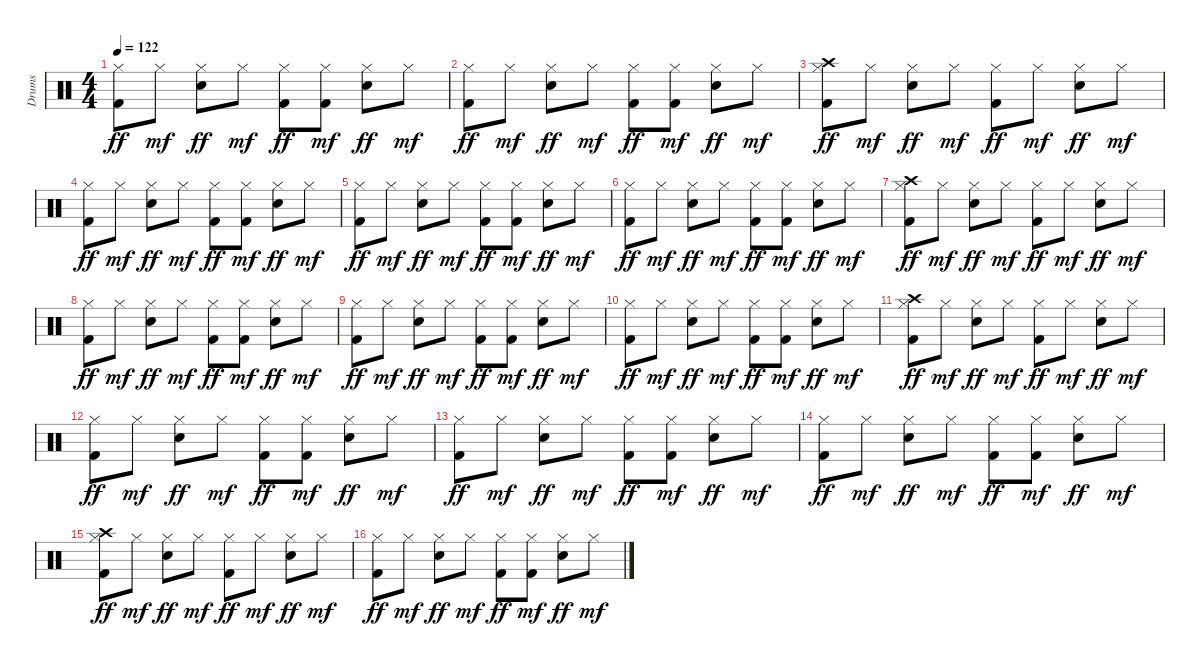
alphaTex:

\track ("Drums" "Drums") {instrument percussion}
\staff {score}
\articulation defaults
\ts (4 4)
\tempo 122
\clef neutral
\ks c
("Kick (hit) 2" "Hi-Hat (closed)").8{dy ff} "Hi-Hat (closed)".8{dy mf} ("Snare (hit) 2" "Hi-Hat (closed)").8{dy ff} "Hi-Hat (closed)".8{dy mf} ("Kick (hit) 2" "Hi-Hat (closed)").8{dy ff} ("Kick (hit) 2" "Hi-Hat (closed)").8{dy mf} ("Snare (hit) 2" "Hi-Hat (closed)").8{dy ff} "Hi-Hat (closed)".8{dy mf} |
("Kick (hit) 2" "Hi-Hat (closed)").8{dy ff} "Hi-Hat (closed)".8{dy mf} ("Snare (hit) 2" "Hi-Hat (closed)").8{dy ff} "Hi-Hat (closed)".8{dy mf} ("Kick (hit) 2" "Hi-Hat (closed)").8{dy ff} ("Kick (hit) 2" "Hi-Hat (closed)").8{dy mf} ("Snare (hit) 2" "Hi-Hat (closed)").8{dy ff} "Hi-Hat (closed)".8{dy mf} |
("Kick (hit) 2" "Hi-Hat (closed)" "Crash high (hit)").8{dy ff} "Hi-Hat (closed)".8{dy mf} ("Snare (hit) 2" "Hi-Hat (closed)").8{dy ff} "Hi-Hat (closed)".8{dy mf} ("Kick (hit) 2" "Hi-Hat (closed)").8{dy ff} "Hi-Hat (closed)".8{dy mf} ("Snare (hit) 2" "Hi-Hat (closed)").8{dy ff} "Hi-Hat (closed)".8{dy mf} |
("Kick (hit) 2" "Hi-Hat (closed)").8{dy ff} "Hi-Hat (closed)".8{dy mf} ("Snare (hit) 2" "Hi-Hat (closed)").8{dy ff} "Hi-Hat (closed)".8{dy mf} ("Kick (hit) 2" "Hi-Hat (closed)").8{dy ff} ("Kick (hit) 2" "Hi-Hat (closed)").8{dy mf} ("Snare (hit) 2" "Hi-Hat (closed)").8{dy ff} "Hi-Hat (closed)".8{dy mf} |
("Kick (hit) 2" "Hi-Hat (closed)").8{dy ff} "Hi-Hat (closed)".8{dy mf} ("Snare (hit) 2" "Hi-Hat (closed)").8{dy ff} "Hi-Hat (closed)".8{dy mf} ("Kick (hit) 2" "Hi-Hat (closed)").8{dy ff} ("Kick (hit) 2" "Hi-Hat (closed)").8{dy mf} ("Snare (hit) 2" "Hi-Hat (closed)").8{dy ff} "Hi-Hat (closed)".8{dy mf} |
("Kick (hit) 2" "Hi-Hat (closed)").8{dy ff} "Hi-Hat (closed)".8{dy mf} ("Snare (hit) 2" "Hi-Hat (closed)").8{dy ff} "Hi-Hat (closed)".8{dy mf} ("Kick (hit) 2" "Hi-Hat (closed)").8{dy ff} ("Kick (hit) 2" "Hi-Hat (closed)").8{dy mf} ("Snare (hit) 2" "Hi-Hat (closed)").8{dy ff} "Hi-Hat (closed)".8{dy mf} |
("Kick (hit) 2" "Hi-Hat (closed)" "Crash high (hit)").8{dy ff} "Hi-Hat (closed)".8{dy mf} ("Snare (hit) 2" "Hi-Hat (closed)").8{dy ff} "Hi-Hat (closed)".8{dy mf} ("Kick (hit) 2" "Hi-Hat (closed)").8{dy ff} "Hi-Hat (closed)".8{dy mf} ("Snare (hit) 2" "Hi-Hat (closed)").8{dy ff} "Hi-Hat (closed)".8{dy mf} |
("Kick (hit) 2" "Hi-Hat (closed)").8{dy ff} "Hi-Hat (closed)".8{dy mf} ("Snare (hit) 2" "Hi-Hat (closed)").8{dy ff} "Hi-Hat (closed)".8{dy mf} ("Kick (hit) 2" "Hi-Hat (closed)").8{dy ff} ("Kick (hit) 2" "Hi-Hat (closed)").8{dy mf} ("Snare (hit) 2" "Hi-Hat (closed)").8{dy ff} "Hi-Hat (closed)".8{dy mf} |
("Kick (hit) 2" "Hi-Hat (closed)").8{dy ff} "Hi-Hat (closed)".8{dy mf} ("Snare (hit) 2" "Hi-Hat (closed)").8{dy ff} "Hi-Hat (closed)".8{dy mf} ("Kick (hit) 2" "Hi-Hat (closed)").8{dy ff} ("Kick (hit) 2" "Hi-Hat (closed)").8{dy mf} ("Snare (hit) 2" "Hi-Hat (closed)").8{dy ff} "Hi-Hat (closed)".8{dy mf} |
("Kick (hit) 2" "Hi-Hat (closed)").8{dy ff} "Hi-Hat (closed)".8{dy mf} ("Snare (hit) 2" "Hi-Hat (closed)").8{dy ff} "Hi-Hat (closed)".8{dy mf} ("Kick (hit) 2" "Hi-Hat (closed)").8{dy ff} ("Kick (hit) 2" "Hi-Hat (closed)").8{dy mf} ("Snare (hit) 2" "Hi-Hat (closed)").8{dy ff} "Hi-Hat (closed)".8{dy mf} |
("Kick (hit) 2" "Hi-Hat (closed)" "Crash high (hit)").8{dy ff} "Hi-Hat (closed)".8{dy mf} ("Snare (hit) 2" "Hi-Hat (closed)").8{dy ff} "Hi-Hat (closed)".8{dy mf} ("Kick (hit) 2" "Hi-Hat (closed)").8{dy ff} "Hi-Hat (closed)".8{dy mf} ("Snare (hit) 2" "Hi-Hat (closed)").8{dy ff} "Hi-Hat (closed)".8{dy mf} |
("Kick (hit) 2" "Hi-Hat (closed)").8{dy ff} "Hi-Hat (closed)".8{dy mf} ("Snare (hit) 2" "Hi-Hat (closed)").8{dy ff} "Hi-Hat (closed)".8{dy mf} ("Kick (hit) 2" "Hi-Hat (closed)").8{dy ff} ("Kick (hit) 2" "Hi-Hat (closed)").8{dy mf} ("Snare (hit) 2" "Hi-Hat (closed)").8{dy ff} "Hi-Hat (closed)".8{dy mf} |
("Kick (hit) 2" "Hi-Hat (closed)").8{dy ff} "Hi-Hat (closed)".8{dy mf} ("Snare (hit) 2" "Hi-Hat (closed)").8{dy ff} "Hi-Hat (closed)".8{dy mf} ("Kick (hit) 2" "Hi-Hat (closed)").8{dy ff} ("Kick (hit) 2" "Hi-Hat (closed)").8{dy mf} ("Snare (hit) 2" "Hi-Hat (closed)").8{dy ff} "Hi-Hat (closed)".8{dy mf} |
("Kick (hit) 2" "Hi-Hat (closed)").8{dy ff} "Hi-Hat (closed)".8{dy mf} ("Snare (hit) 2" "Hi-Hat (closed)").8{dy ff} "Hi-Hat (closed)".8{dy mf} ("Kick (hit) 2" "Hi-Hat (closed)").8{dy ff} ("Kick (hit) 2" "Hi-Hat (closed)").8{dy mf} ("Snare (hit) 2" "Hi-Hat (closed)").8{dy ff} "Hi-Hat (closed)".8{dy mf} |
("Kick (hit) 2" "Hi-Hat (closed)" "Crash high (hit)").8{dy ff} "Hi-Hat (closed)".8{dy mf} ("Snare (hit) 2" "Hi-Hat (closed)").8{dy ff} "Hi-Hat (closed)".8{dy mf} ("Kick (hit) 2" "Hi-Hat (closed)").8{dy ff} "Hi-Hat (closed)".8{dy mf} ("Snare (hit) 2" "Hi-Hat (closed)").8{dy ff} "Hi-Hat (closed)".8{dy mf} |
("Kick (hit) 2" "Hi-Hat (closed)").8{dy ff} "Hi-Hat (closed)".8{dy mf} ("Snare (hit) 2" "Hi-Hat (closed)").8{dy ff} "Hi-Hat (closed)".8{dy mf} ("Kick (hit) 2" "Hi-Hat (closed)").8{dy ff} ("Kick (hit) 2" "Hi-Hat (closed)").8{dy mf} ("Snare (hit) 2" "Hi-Hat (closed)").8{dy ff} "Hi-Hat (closed)".8{dy mf}
